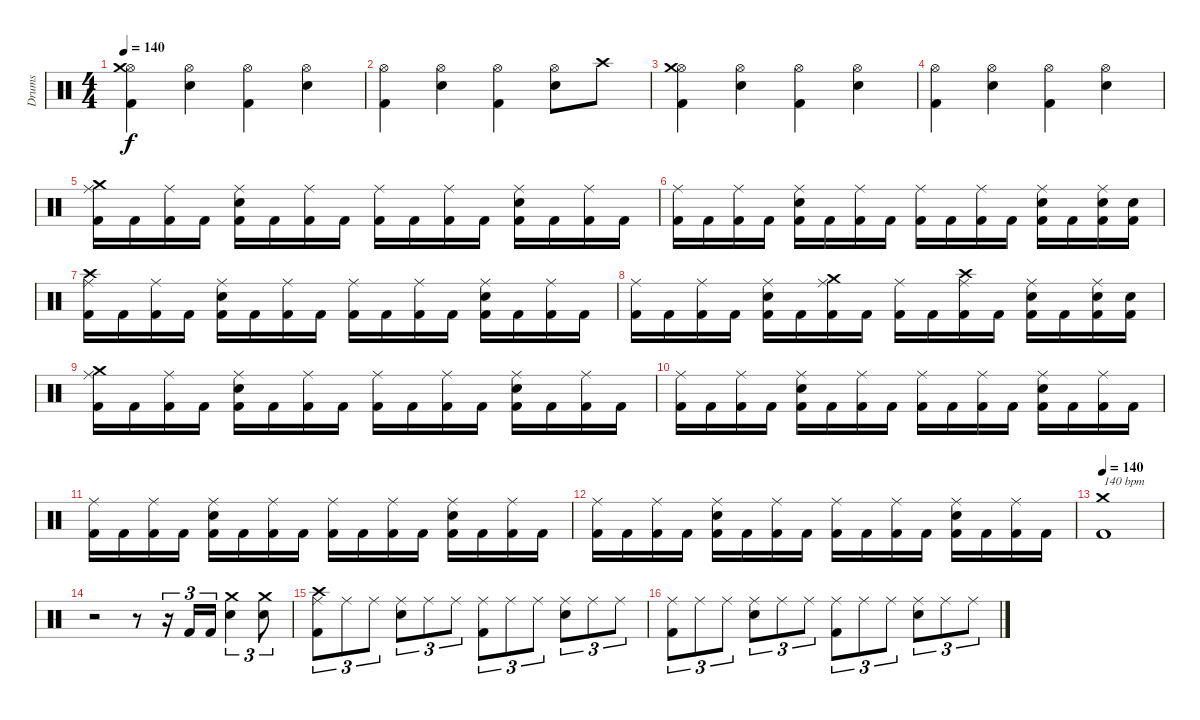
\track ("Drums" "Drums") {instrument percussion}
\staff {score}
\articulation defaults
\ts (4 4)
\tempo 140
\clef neutral
\ks c
("Kick (hit) 2" "Hi-Hat (open)" "Crash medium (hit)").4{dy f} ("Snare (hit) 2" "Hi-Hat (open)").4 ("Kick (hit) 2" "Hi-Hat (open)").4 ("Snare (hit) 2" "Hi-Hat (open)").4 |
("Kick (hit) 2" "Hi-Hat (open)").4 ("Snare (hit) 2" "Hi-Hat (open)").4 ("Kick (hit) 2" "Hi-Hat (open)").4 ("Snare (hit) 2" "Hi-Hat (open)").8 "Crash high (hit)".8 |
("Kick (hit) 2" "Hi-Hat (open)" "Crash medium (hit)").4 ("Snare (hit) 2" "Hi-Hat (open)").4 ("Kick (hit) 2" "Hi-Hat (open)").4 ("Snare (hit) 2" "Hi-Hat (open)").4 |
("Kick (hit) 2" "Hi-Hat (open)").4 ("Snare (hit) 2" "Hi-Hat (open)").4 ("Kick (hit) 2" "Hi-Hat (open)").4 ("Snare (hit) 2" "Hi-Hat (open)").4 |
("Kick (hit) 2" "Ride (middle)" "Crash medium (hit)").16 "Kick (hit) 2".16 ("Kick (hit) 2" "Ride (middle)").16 "Kick (hit) 2".16 ("Kick (hit) 2" "Snare (hit) 2" "Ride (middle)").16 "Kick (hit) 2".16 ("Kick (hit) 2" "Ride (middle)").16 "Kick (hit) 2".16 ("Kick (hit) 2" "Ride (middle)").16 "Kick (hit) 2".16 ("Kick (hit) 2" "Ride (middle)").16 "Kick (hit) 2".16 ("Kick (hit) 2" "Snare (hit) 2" "Ride (middle)").16 "Kick (hit) 2".16 ("Kick (hit) 2" "Ride (middle)").16 "Kick (hit) 2".16 |
("Kick (hit) 2" "Ride (middle)").16 "Kick (hit) 2".16 ("Kick (hit) 2" "Ride (middle)").16 "Kick (hit) 2".16 ("Kick (hit) 2" "Snare (hit) 2" "Ride (middle)").16 "Kick (hit) 2".16 ("Kick (hit) 2" "Ride (middle)").16 "Kick (hit) 2".16 ("Kick (hit) 2" "Ride (middle)").16 "Kick (hit) 2".16 ("Kick (hit) 2" "Ride (middle)").16 "Kick (hit) 2".16 ("Kick (hit) 2" "Snare (hit) 2" "Ride (middle)").16 "Kick (hit) 2".16 ("Kick (hit) 2" "Snare (hit) 2" "Ride (middle)").16 ("Kick (hit) 2" "Snare (hit) 2").16 |
("Kick (hit) 2" "Ride (middle)" "Crash high (hit)").16 "Kick (hit) 2".16 ("Kick (hit) 2" "Ride (middle)").16 "Kick (hit) 2".16 ("Kick (hit) 2" "Snare (hit) 2" "Ride (middle)").16 "Kick (hit) 2".16 ("Kick (hit) 2" "Ride (middle)").16 "Kick (hit) 2".16 ("Kick (hit) 2" "Ride (middle)").16 "Kick (hit) 2".16 ("Kick (hit) 2" "Ride (middle)").16 "Kick (hit) 2".16 ("Kick (hit) 2" "Snare (hit) 2" "Ride (middle)").16 "Kick (hit) 2".16 ("Kick (hit) 2" "Ride (middle)").16 "Kick (hit) 2".16 |
("Kick (hit) 2" "Ride (middle)").16 "Kick (hit) 2".16 ("Kick (hit) 2" "Ride (middle)").16 "Kick (hit) 2".16 ("Kick (hit) 2" "Snare (hit) 2" "Ride (middle)").16 "Kick (hit) 2".16 ("Kick (hit) 2" "Ride (middle)" "Crash medium (hit)").16 "Kick (hit) 2".16 ("Kick (hit) 2" "Ride (middle)").16 "Kick (hit) 2".16 ("Kick (hit) 2" "Ride (middle)" "Crash high (hit)").16 "Kick (hit) 2".16 ("Kick (hit) 2" "Snare (hit) 2" "Ride (middle)").16 "Kick (hit) 2".16 ("Kick (hit) 2" "Snare (hit) 2" "Ride (middle)").16 ("Kick (hit) 2" "Snare (hit) 2").16 |
("Kick (hit) 2" "Ride (middle)" "Crash medium (hit)").16 "Kick (hit) 2".16 ("Kick (hit) 2" "Ride (middle)").16 "Kick (hit) 2".16 ("Kick (hit) 2" "Snare (hit) 2" "Ride (middle)").16 "Kick (hit) 2".16 ("Kick (hit) 2" "Ride (middle)").16 "Kick (hit) 2".16 ("Kick (hit) 2" "Ride (middle)").16 "Kick (hit) 2".16 ("Kick (hit) 2" "Ride (middle)").16 "Kick (hit) 2".16 ("Kick (hit) 2" "Snare (hit) 2" "Ride (middle)").16 "Kick (hit) 2".16 ("Kick (hit) 2" "Ride (middle)").16 "Kick (hit) 2".16 |
("Kick (hit) 2" "Ride (middle)").16 "Kick (hit) 2".16 ("Kick (hit) 2" "Ride (middle)").16 "Kick (hit) 2".16 ("Kick (hit) 2" "Snare (hit) 2" "Ride (middle)").16 "Kick (hit) 2".16 ("Kick (hit) 2" "Ride (middle)").16 "Kick (hit) 2".16 ("Kick (hit) 2" "Ride (middle)").16 "Kick (hit) 2".16 ("Kick (hit) 2" "Ride (middle)").16 "Kick (hit) 2".16 ("Kick (hit) 2" "Snare (hit) 2" "Ride (middle)").16 "Kick (hit) 2".16 ("Kick (hit) 2" "Ride (middle)").16 "Kick (hit) 2".16 |
("Kick (hit) 2" "Ride (middle)").16 "Kick (hit) 2".16 ("Kick (hit) 2" "Ride (middle)").16 "Kick (hit) 2".16 ("Kick (hit) 2" "Snare (hit) 2" "Ride (middle)").16 "Kick (hit) 2".16 ("Kick (hit) 2" "Ride (middle)").16 "Kick (hit) 2".16 ("Kick (hit) 2" "Ride (middle)").16 "Kick (hit) 2".16 ("Kick (hit) 2" "Ride (middle)").16 "Kick (hit) 2".16 ("Kick (hit) 2" "Snare (hit) 2" "Ride (middle)").16 "Kick (hit) 2".16 ("Kick (hit) 2" "Ride (middle)").16 "Kick (hit) 2".16 |
("Kick (hit) 2" "Ride (middle)").16 "Kick (hit) 2".16 ("Kick (hit) 2" "Ride (middle)").16 "Kick (hit) 2".16 ("Kick (hit) 2" "Snare (hit) 2" "Ride (middle)").16 "Kick (hit) 2".16 ("Kick (hit) 2" "Ride (middle)").16 "Kick (hit) 2".16 ("Kick (hit) 2" "Ride (middle)").16 "Kick (hit) 2".16 ("Kick (hit) 2" "Ride (middle)").16 "Kick (hit) 2".16 ("Kick (hit) 2" "Snare (hit) 2" "Ride (middle)").16 "Kick (hit) 2".16 ("Kick (hit) 2" "Ride (middle)").16 "Kick (hit) 2".16 |
\tempo 140
("Kick (hit) 2" "Crash medium (hit)").1{txt "140 bpm"} |
r.2 r.8 r.16{tu (3 2)} "Kick (hit) 2".16{tu (3 2)} "Kick (hit) 2".16{tu (3 2)} ("Snare (hit) 2" "Crash medium (hit)").4{tu (3 2)} ("Snare (hit) 2" "Crash medium (hit)").8{tu (3 2)} |
("Kick (hit) 2" "Ride (middle)" "Crash high (hit)").8{tu (3 2)} "Ride (middle)".8{tu (3 2)} "Ride (middle)".8{tu (3 2)} ("Snare (hit) 2" "Ride (middle)").8{tu (3 2)} "Ride (middle)".8{tu (3 2)} "Ride (middle)".8{tu (3 2)} ("Kick (hit) 2" "Ride (middle)").8{tu (3 2)} "Ride (middle)".8{tu (3 2)} "Ride (middle)".8{tu (3 2)} ("Snare (hit) 2" "Ride (middle)").8{tu (3 2)} "Ride (middle)".8{tu (3 2)} "Ride (middle)".8{tu (3 2)} |
("Kick (hit) 2" "Ride (middle)").8{tu (3 2)} "Ride (middle)".8{tu (3 2)} "Ride (middle)".8{tu (3 2)} ("Snare (hit) 2" "Ride (middle)").8{tu (3 2)} "Ride (middle)".8{tu (3 2)} "Ride (middle)".8{tu (3 2)} ("Kick (hit) 2" "Ride (middle)").8{tu (3 2)} "Ride (middle)".8{tu (3 2)} "Ride (middle)".8{tu (3 2)} ("Snare (hit) 2" "Ride (middle)").8{tu (3 2)} "Ride (middle)".8{tu (3 2)} "Ride (middle)".8{tu (3 2)}
